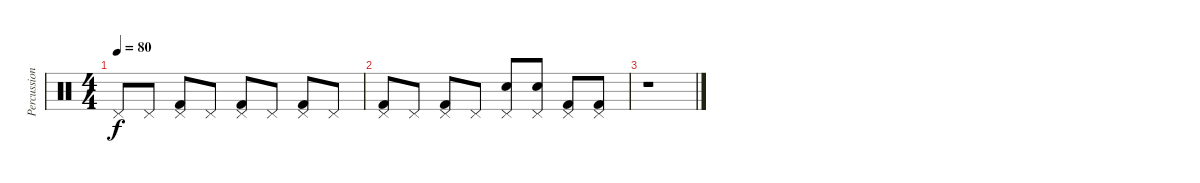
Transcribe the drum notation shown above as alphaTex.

\track ("Percussions" "Percussion") {instrument percussion}
\staff {score}
\articulation defaults
\ts (4 4)
\tempo 80
\clef neutral
\ks c "Pedal Hi-Hat (hit)".8{dy f} "Pedal Hi-Hat (hit)".8
("Pedal Hi-Hat (hit)" "Kick (hit) 2").8 "Pedal Hi-Hat (hit)".8 ("Pedal Hi-Hat (hit)" "Kick (hit) 2").8 "Pedal Hi-Hat (hit)".8 ("Pedal Hi-Hat (hit)" "Kick (hit) 2").8 "Pedal Hi-Hat (hit)".8 |
("Pedal Hi-Hat (hit)" "Kick (hit) 2").8 "Pedal Hi-Hat (hit)".8 ("Pedal Hi-Hat (hit)" "Kick (hit) 2").8 "Pedal Hi-Hat (hit)".8 ("Pedal Hi-Hat (hit)" "Electric Snare (hit)").8 ("Pedal Hi-Hat (hit)" "Electric Snare (hit)").8 ("Pedal Hi-Hat (hit)" "Kick (hit) 2").8 ("Pedal Hi-Hat (hit)" "Kick (hit) 2").8 |
r.1
